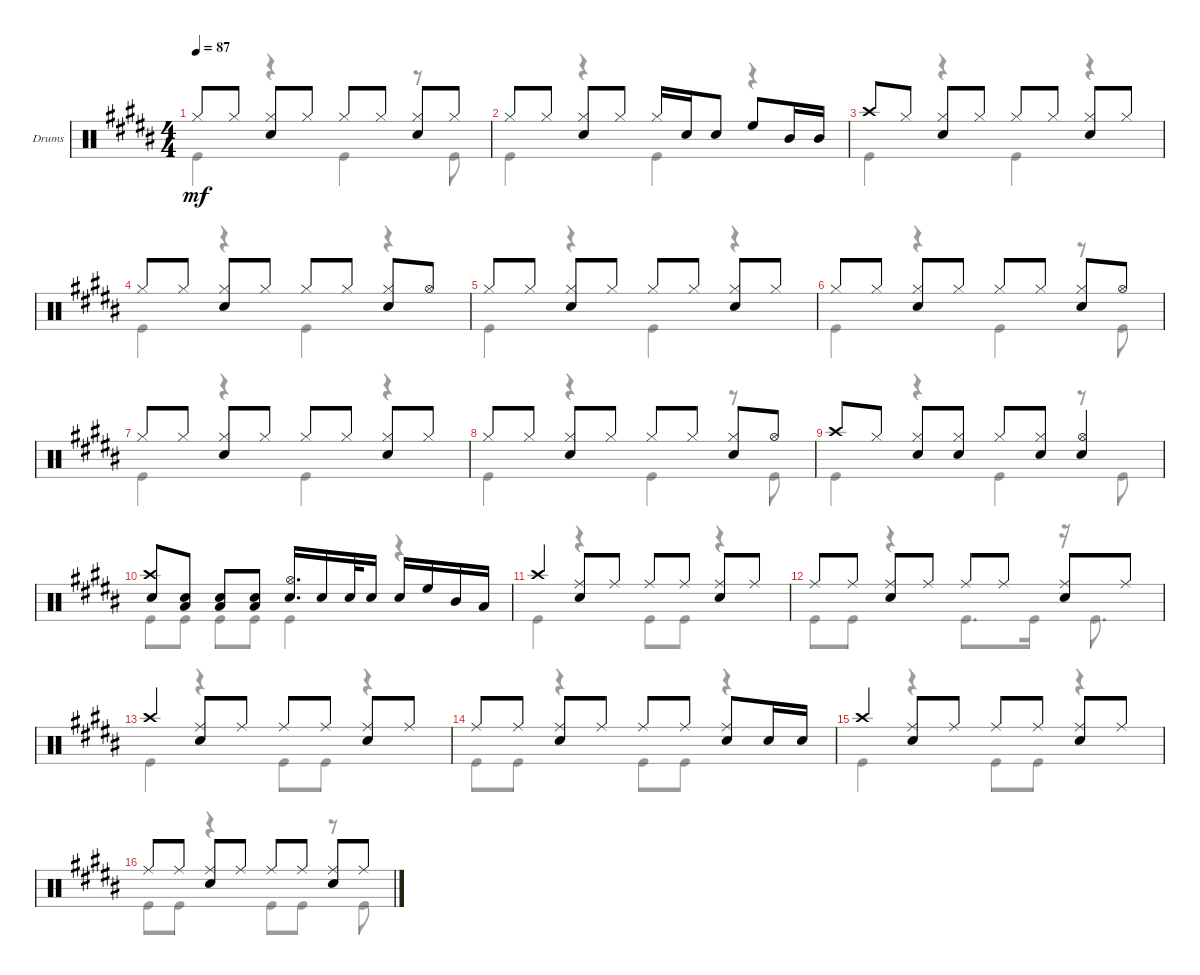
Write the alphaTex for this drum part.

\bracketExtendMode groupsimilarinstruments
\firstSystemTrackNameOrientation horizontal
\otherSystemsTrackNameOrientation horizontal
\track ("Drums" "Drums") {multiBarRest instrument percussion}
\staff {score}
\articulation defaults
\voice
\ts (4 4)
\tempo 87
\clef neutral
\ks b "Hi-Hat (closed)".8{dy mf} "Hi-Hat (closed)".8
("Hi-Hat (closed)" "Snare (hit) 2").8 "Hi-Hat (closed)".8 "Hi-Hat (closed)".8 "Hi-Hat (closed)".8 ("Hi-Hat (closed)" "Snare (hit) 2").8 "Hi-Hat (closed)".8 |
"Hi-Hat (closed)".8 "Hi-Hat (closed)".8 ("Hi-Hat (closed)" "Snare (hit) 2").8 "Hi-Hat (closed)".8 "Hi-Hat (closed)".16 "Snare (hit) 2".16 "Snare (hit) 2".8 "High Floor Tom (hit)".8 "Mid Tom (hit)".16 "Mid Tom (hit)".16 |
"Crash high (hit)".8 "Hi-Hat (closed)".8 ("Hi-Hat (closed)" "Snare (hit) 2").8 "Hi-Hat (closed)".8 "Hi-Hat (closed)".8 "Hi-Hat (closed)".8 ("Hi-Hat (closed)" "Snare (hit) 2").8 "Hi-Hat (closed)".8 |
"Hi-Hat (closed)".8 "Hi-Hat (closed)".8 ("Hi-Hat (closed)" "Snare (hit) 2").8 "Hi-Hat (closed)".8 "Hi-Hat (closed)".8 "Hi-Hat (closed)".8 ("Hi-Hat (closed)" "Snare (hit) 2").8 "Hi-Hat (open)".8 |
"Hi-Hat (closed)".8 "Hi-Hat (closed)".8 ("Hi-Hat (closed)" "Snare (hit) 2").8 "Hi-Hat (closed)".8 "Hi-Hat (closed)".8 "Hi-Hat (closed)".8 ("Hi-Hat (closed)" "Snare (hit) 2").8 "Hi-Hat (closed)".8 |
"Hi-Hat (closed)".8 "Hi-Hat (closed)".8 ("Hi-Hat (closed)" "Snare (hit) 2").8 "Hi-Hat (closed)".8 "Hi-Hat (closed)".8 "Hi-Hat (closed)".8 ("Hi-Hat (closed)" "Snare (hit) 2").8 "Hi-Hat (open)".8 |
"Hi-Hat (closed)".8 "Hi-Hat (closed)".8 ("Hi-Hat (closed)" "Snare (hit) 2").8 "Hi-Hat (closed)".8 "Hi-Hat (closed)".8 "Hi-Hat (closed)".8 ("Hi-Hat (closed)" "Snare (hit) 2").8 "Hi-Hat (closed)".8 |
"Hi-Hat (closed)".8 "Hi-Hat (closed)".8 ("Hi-Hat (closed)" "Snare (hit) 2").8 "Hi-Hat (closed)".8 "Hi-Hat (closed)".8 "Hi-Hat (closed)".8 ("Hi-Hat (closed)" "Snare (hit) 2").8 "Hi-Hat (open)".8 |
"Crash high (hit)".8 "Hi-Hat (closed)".8 ("Hi-Hat (closed)" "Snare (hit) 2").8 ("Hi-Hat (closed)" "Snare (hit) 2").8 "Hi-Hat (closed)".8 ("Hi-Hat (closed)" "Snare (hit) 2").8 ("Snare (hit) 2" "Hi-Hat (open)").4 |
("Crash high (hit)" "Snare (hit) 2").8 ("Snare (hit) 2" "Low Tom (hit)").8 ("Low Tom (hit)" "Snare (hit) 2").8 ("Snare (hit) 2" "Low Tom (hit)").8 ("Hi-Hat (open)" "Snare (hit) 2").16{d} "Snare (hit) 2".16 "Snare (hit) 2".32 "Snare (hit) 2".16 "Snare (hit) 2".16 "High Floor Tom (hit)".16 "Mid Tom (hit)".16 "Low Tom (hit)".16 |
"Crash high (hit)".4 ("Snare (hit) 2" "Ride (middle)").8 "Ride (middle)".8 "Ride (middle)".8 "Ride (middle)".8 ("Ride (middle)" "Snare (hit) 2").8 "Ride (middle)".8 |
"Ride (middle)".8 "Ride (middle)".8 ("Ride (middle)" "Snare (hit) 2").8 "Ride (middle)".8 "Ride (middle)".8 "Ride (middle)".8 ("Ride (middle)" "Snare (hit) 2").8 "Ride (middle)".8 |
"Crash high (hit)".4 ("Ride (middle)" "Snare (hit) 2").8 "Ride (middle)".8 "Ride (middle)".8 "Ride (middle)".8 ("Ride (middle)" "Snare (hit) 2").8 "Ride (middle)".8 |
"Ride (middle)".8 "Ride (middle)".8 ("Ride (middle)" "Snare (hit) 2").8 "Ride (middle)".8 "Ride (middle)".8 "Ride (middle)".8 ("Ride (middle)" "Snare (hit) 2").8 "Snare (hit) 2".16 "Snare (hit) 2".16 |
"Crash high (hit)".4 ("Ride (middle)" "Snare (hit) 2").8 "Ride (middle)".8 "Ride (middle)".8 "Ride (middle)".8 ("Ride (middle)" "Snare (hit) 2").8 "Ride (middle)".8 |
"Ride (middle)".8 "Ride (middle)".8 ("Ride (middle)" "Snare (hit) 2").8 "Ride (middle)".8 "Ride (middle)".8 "Ride (middle)".8 ("Ride (middle)" "Snare (hit) 2").8 "Ride (middle)".8
\voice
\clef neutral
\ottava regular
\simile none
\ks b "Kick (hit)".4{dy mf}
r.4 "Kick (hit)".4 r.8 "Kick (hit)".8 |
"Kick (hit)".4 r.4 "Kick (hit)".4 r.4 |
"Kick (hit)".4 r.4 "Kick (hit)".4 r.4 |
"Kick (hit)".4 r.4 "Kick (hit)".4 r.4 |
"Kick (hit)".4 r.4 "Kick (hit)".4 r.4 |
"Kick (hit)".4 r.4 "Kick (hit)".4 r.8 "Kick (hit)".8 |
"Kick (hit)".4 r.4 "Kick (hit)".4 r.4 |
"Kick (hit)".4 r.4 "Kick (hit)".4 r.8 "Kick (hit)".8 |
"Kick (hit)".4 r.4 "Kick (hit)".4 r.8 "Kick (hit)".8 |
"Kick (hit)".8 "Kick (hit)".8 "Kick (hit)".8 "Kick (hit)".8 "Kick (hit)".4 r.4 |
"Kick (hit)".4 r.4 "Kick (hit)".8 "Kick (hit)".8 r.4 |
"Kick (hit)".8 "Kick (hit)".8 r.4 "Kick (hit)".8{d} "Kick (hit)".16 r.16 "Kick (hit)".8{d} |
"Kick (hit)".4 r.4 "Kick (hit)".8 "Kick (hit)".8 r.4 |
"Kick (hit)".8 "Kick (hit)".8 r.4 "Kick (hit)".8 "Kick (hit)".8 r.4 |
"Kick (hit)".4 r.4 "Kick (hit)".8 "Kick (hit)".8 r.4 |
"Kick (hit)".8 "Kick (hit)".8 r.4 "Kick (hit)".8 "Kick (hit)".8 r.8 "Kick (hit)".8
